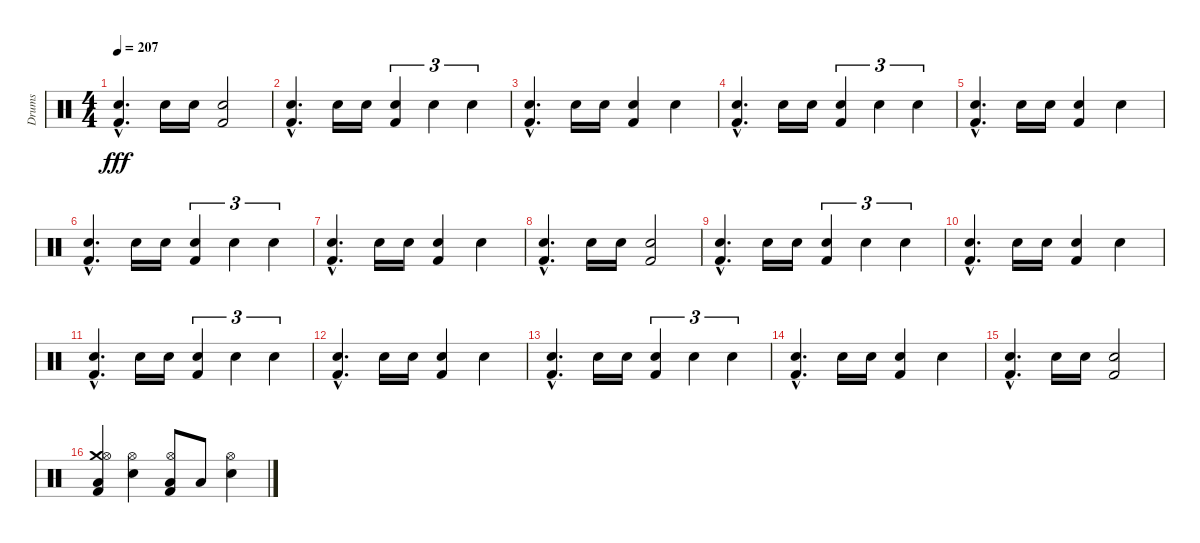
\track ("Drums" "Drums") {instrument percussion}
\staff {score}
\articulation defaults
\ts (4 4)
\tempo 207
\clef neutral
\ks c
("Snare (hit) 2"{hac} "Kick (hit) 2"{hac}).4{d dy fff} "Snare (hit) 2".16 "Snare (hit) 2".16 ("Snare (hit) 2" "Kick (hit) 2").2 |
("Snare (hit) 2"{hac} "Kick (hit) 2"{hac}).4{d} "Snare (hit) 2".16 "Snare (hit) 2".16 ("Snare (hit) 2" "Kick (hit) 2").4{tu (3 2)} "Snare (hit) 2".4{tu (3 2)} "Snare (hit) 2".4{tu (3 2)} |
("Snare (hit) 2"{hac} "Kick (hit) 2"{hac}).4{d} "Snare (hit) 2".16 "Snare (hit) 2".16 ("Snare (hit) 2" "Kick (hit) 2").4 "Snare (hit) 2".4 |
("Snare (hit) 2"{hac} "Kick (hit) 2"{hac}).4{d} "Snare (hit) 2".16 "Snare (hit) 2".16 ("Snare (hit) 2" "Kick (hit) 2").4{tu (3 2)} "Snare (hit) 2".4{tu (3 2)} "Snare (hit) 2".4{tu (3 2)} |
("Snare (hit) 2"{hac} "Kick (hit) 2"{hac}).4{d} "Snare (hit) 2".16 "Snare (hit) 2".16 ("Snare (hit) 2" "Kick (hit) 2").4 "Snare (hit) 2".4 |
("Snare (hit) 2"{hac} "Kick (hit) 2"{hac}).4{d} "Snare (hit) 2".16 "Snare (hit) 2".16 ("Snare (hit) 2" "Kick (hit) 2").4{tu (3 2)} "Snare (hit) 2".4{tu (3 2)} "Snare (hit) 2".4{tu (3 2)} |
("Snare (hit) 2"{hac} "Kick (hit) 2"{hac}).4{d} "Snare (hit) 2".16 "Snare (hit) 2".16 ("Snare (hit) 2" "Kick (hit) 2").4 "Snare (hit) 2".4 |
("Snare (hit) 2"{hac} "Kick (hit) 2"{hac}).4{d} "Snare (hit) 2".16 "Snare (hit) 2".16 ("Snare (hit) 2" "Kick (hit) 2").2 |
("Snare (hit) 2"{hac} "Kick (hit) 2"{hac}).4{d} "Snare (hit) 2".16 "Snare (hit) 2".16 ("Snare (hit) 2" "Kick (hit) 2").4{tu (3 2)} "Snare (hit) 2".4{tu (3 2)} "Snare (hit) 2".4{tu (3 2)} |
("Snare (hit) 2"{hac} "Kick (hit) 2"{hac}).4{d} "Snare (hit) 2".16 "Snare (hit) 2".16 ("Snare (hit) 2" "Kick (hit) 2").4 "Snare (hit) 2".4 |
("Snare (hit) 2"{hac} "Kick (hit) 2"{hac}).4{d} "Snare (hit) 2".16 "Snare (hit) 2".16 ("Snare (hit) 2" "Kick (hit) 2").4{tu (3 2)} "Snare (hit) 2".4{tu (3 2)} "Snare (hit) 2".4{tu (3 2)} |
("Snare (hit) 2"{hac} "Kick (hit) 2"{hac}).4{d} "Snare (hit) 2".16 "Snare (hit) 2".16 ("Snare (hit) 2" "Kick (hit) 2").4 "Snare (hit) 2".4 |
("Snare (hit) 2"{hac} "Kick (hit) 2"{hac}).4{d} "Snare (hit) 2".16 "Snare (hit) 2".16 ("Snare (hit) 2" "Kick (hit) 2").4{tu (3 2)} "Snare (hit) 2".4{tu (3 2)} "Snare (hit) 2".4{tu (3 2)} |
("Snare (hit) 2"{hac} "Kick (hit) 2"{hac}).4{d} "Snare (hit) 2".16 "Snare (hit) 2".16 ("Snare (hit) 2" "Kick (hit) 2").4 "Snare (hit) 2".4 |
("Snare (hit) 2"{hac} "Kick (hit) 2"{hac}).4{d} "Snare (hit) 2".16 "Snare (hit) 2".16 ("Snare (hit) 2" "Kick (hit) 2").2 |
("Crash medium (hit)" "Hi-Hat (open)" "Low Floor Tom (hit)" "Kick (hit) 2").4 ("Hi-Hat (open)" "Snare (hit) 2").4 ("Hi-Hat (open)" "Low Floor Tom (hit)" "Kick (hit) 2").8 "Low Floor Tom (hit)".8 ("Hi-Hat (open)" "Snare (hit) 2").4
